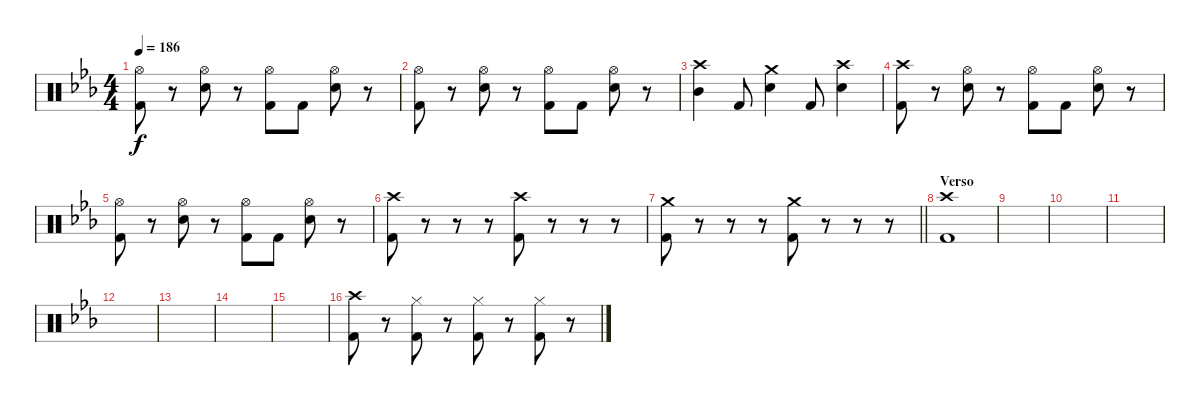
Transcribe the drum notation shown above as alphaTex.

\track "" {instrument percussion}
\staff {score}
\articulation defaults
\ts (4 4)
\tempo 186
\clef neutral
\ks eb
("Hi-Hat (open)" "Kick (hit) 2").8{dy f} r.8 ("Hi-Hat (open)" "Snare (hit) 2").8 r.8 ("Hi-Hat (open)" "Kick (hit) 2").8 "Kick (hit) 2".8 ("Hi-Hat (open)" "Snare (hit) 2").8 r.8 |
("Hi-Hat (open)" "Kick (hit) 2").8 r.8 ("Hi-Hat (open)" "Snare (hit) 2").8 r.8 ("Hi-Hat (open)" "Kick (hit) 2").8 "Kick (hit) 2".8 ("Hi-Hat (open)" "Snare (hit) 2").8 r.8 |
("Crash high (hit)" "Mid Tom (hit)").4 "Kick (hit) 2".8 ("Crash medium (hit)" "Snare (hit) 2").4 "Kick (hit) 2".8 ("Crash high (hit)" "Snare (hit) 2").4 |
("Crash high (hit)" "Kick (hit) 2").8 r.8 ("Hi-Hat (open)" "Snare (hit) 2").8 r.8 ("Hi-Hat (open)" "Kick (hit) 2").8 "Kick (hit) 2".8 ("Hi-Hat (open)" "Snare (hit) 2").8 r.8 |
("Hi-Hat (open)" "Kick (hit) 2").8 r.8 ("Hi-Hat (open)" "Snare (hit) 2").8 r.8 ("Hi-Hat (open)" "Kick (hit) 2").8 "Kick (hit) 2".8 ("Hi-Hat (open)" "Snare (hit) 2").8 r.8 |
("Crash high (hit)" "Kick (hit) 2").8 r.8 r.8 r.8 ("Crash high (hit)" "Kick (hit) 2").8 r.8 r.8 r.8 |
\barLineRight lightlight
("Crash medium (hit)" "Kick (hit) 2").8 r.8 r.8 r.8 ("Crash medium (hit)" "Kick (hit) 2").8 r.8 r.8 r.8 |
\section ("" "Verso")
("Crash high (hit)" "Kick (hit) 2").1 |
|
|
|
|
|
|
|
("Crash high (hit)" "Kick (hit) 2").8 r.8 ("Hi-Hat (closed)" "Kick (hit) 2").8 r.8 ("Hi-Hat (closed)" "Kick (hit) 2").8 r.8 ("Hi-Hat (closed)" "Kick (hit) 2").8 r.8
